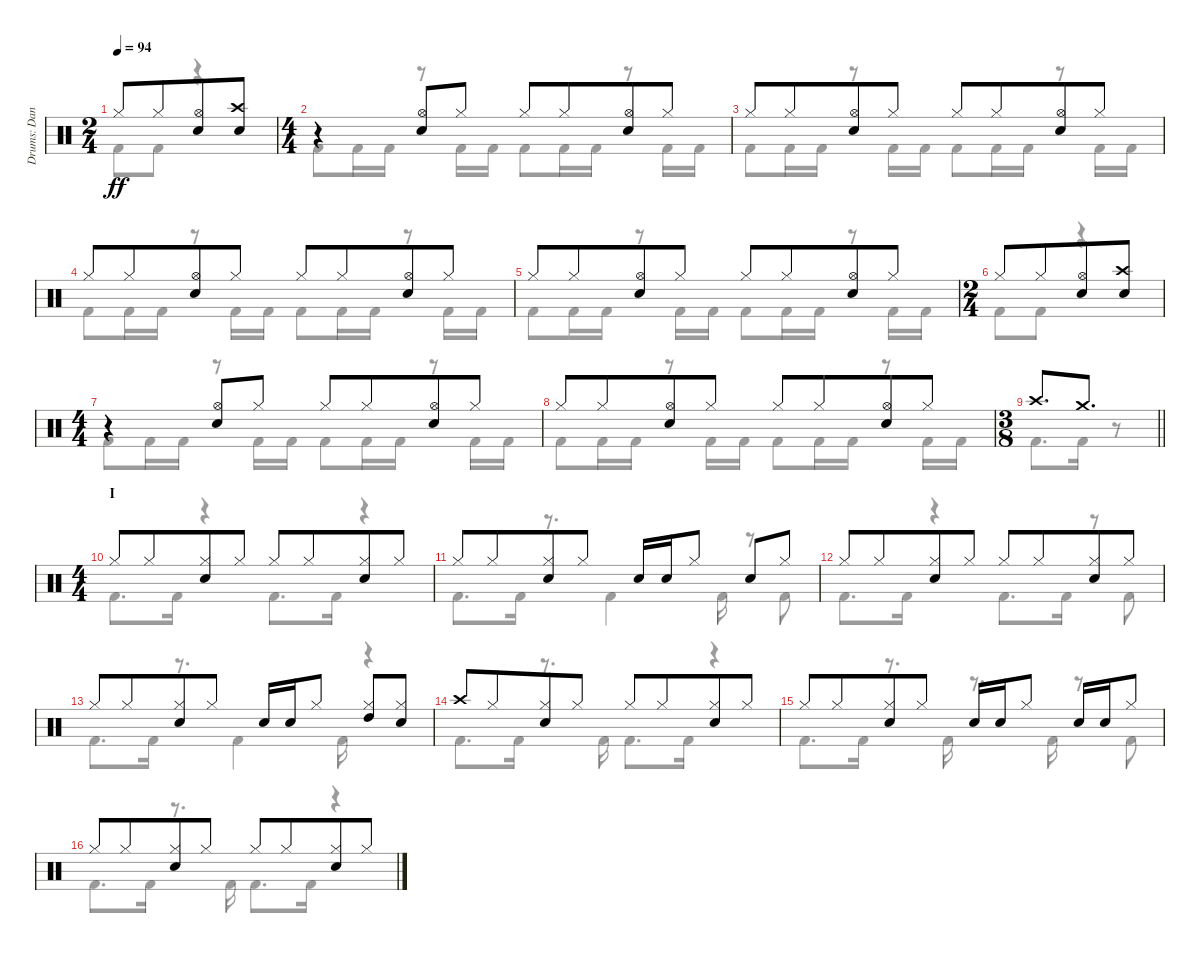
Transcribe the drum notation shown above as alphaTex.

\track ("Drums: Dana" "Drums: Dan") {instrument percussion}
\staff {score}
\articulation defaults
\voice
\ts (2 4)
\tempo 94
\clef neutral
\ks c "Hi-Hat (closed)".8{dy ff} "Hi-Hat (closed)".8{beam merge}
("Hi-Hat (open)" "Snare (hit) 2").8 ("Crash high (hit)" "Snare (hit) 2").8 |
\ts (4 4)
r.4{beam merge} ("Hi-Hat (open)" "Snare (hit) 2").8 "Hi-Hat (closed)".8 "Hi-Hat (closed)".8 "Hi-Hat (closed)".8{beam merge} ("Hi-Hat (open)" "Snare (hit) 2").8 "Hi-Hat (closed)".8 |
"Hi-Hat (closed)".8 "Hi-Hat (closed)".8{beam merge} ("Hi-Hat (open)" "Snare (hit) 2").8 "Hi-Hat (closed)".8 "Hi-Hat (closed)".8 "Hi-Hat (closed)".8{beam merge} ("Hi-Hat (open)" "Snare (hit) 2").8 "Hi-Hat (closed)".8 |
"Hi-Hat (closed)".8 "Hi-Hat (closed)".8{beam merge} ("Hi-Hat (open)" "Snare (hit) 2").8 "Hi-Hat (closed)".8 "Hi-Hat (closed)".8 "Hi-Hat (closed)".8{beam merge} ("Hi-Hat (open)" "Snare (hit) 2").8 "Hi-Hat (closed)".8 |
"Hi-Hat (closed)".8 "Hi-Hat (closed)".8{beam merge} ("Hi-Hat (open)" "Snare (hit) 2").8 "Hi-Hat (closed)".8 "Hi-Hat (closed)".8 "Hi-Hat (closed)".8{beam merge} ("Hi-Hat (open)" "Snare (hit) 2").8 "Hi-Hat (closed)".8 |
\ts (2 4)
"Hi-Hat (closed)".8 "Hi-Hat (closed)".8{beam merge} ("Hi-Hat (open)" "Snare (hit) 2").8 ("Crash high (hit)" "Snare (hit) 2").8 |
\ts (4 4)
r.4{beam merge} ("Hi-Hat (open)" "Snare (hit) 2").8 "Hi-Hat (closed)".8 "Hi-Hat (closed)".8 "Hi-Hat (closed)".8{beam merge} ("Hi-Hat (open)" "Snare (hit) 2").8 "Hi-Hat (closed)".8 |
"Hi-Hat (closed)".8 "Hi-Hat (closed)".8{beam merge} ("Hi-Hat (open)" "Snare (hit) 2").8 "Hi-Hat (closed)".8 "Hi-Hat (closed)".8 "Hi-Hat (closed)".8{beam merge} ("Hi-Hat (open)" "Snare (hit) 2").8 "Hi-Hat (closed)".8 |
\ts (3 8)
\barLineRight lightlight "Crash high (hit)".8{d} "Crash medium (hit)".8{d}
|
\ts (4 4)
\section ("" "I")
"Hi-Hat (closed)".8 "Hi-Hat (closed)".8{beam merge} ("Hi-Hat (closed)" "Snare (hit) 2").8 "Hi-Hat (closed)".8 "Hi-Hat (closed)".8 "Hi-Hat (closed)".8{beam merge} ("Hi-Hat (closed)" "Snare (hit) 2").8 "Hi-Hat (closed)".8 |
"Hi-Hat (closed)".8 "Hi-Hat (closed)".8{beam merge} ("Hi-Hat (closed)" "Snare (hit) 2").8 "Hi-Hat (closed)".8 "Snare (hit) 2".16 "Snare (hit) 2".16{beam merge} "Hi-Hat (closed)".8 "Snare (hit) 2".8 "Hi-Hat (closed)".8 |
"Hi-Hat (closed)".8 "Hi-Hat (closed)".8{beam merge} ("Hi-Hat (closed)" "Snare (hit) 2").8 "Hi-Hat (closed)".8 "Hi-Hat (closed)".8 "Hi-Hat (closed)".8{beam merge} ("Hi-Hat (closed)" "Snare (hit) 2").8 "Hi-Hat (closed)".8 |
"Hi-Hat (closed)".8 "Hi-Hat (closed)".8{beam merge} ("Hi-Hat (closed)" "Snare (hit) 2").8 "Hi-Hat (closed)".8 "Snare (hit) 2".16 "Snare (hit) 2".16{beam merge} "Hi-Hat (closed)".8 ("Hi-Hat (closed)" "High Tom (hit)").8 ("Hi-Hat (closed)" "Snare (hit) 2").8 |
"Crash high (hit)".8 "Hi-Hat (closed)".8{beam merge} ("Hi-Hat (closed)" "Snare (hit) 2").8 "Hi-Hat (closed)".8 "Hi-Hat (closed)".8 "Hi-Hat (closed)".8{beam merge} ("Hi-Hat (closed)" "Snare (hit) 2").8 "Hi-Hat (closed)".8 |
"Hi-Hat (closed)".8 "Hi-Hat (closed)".8{beam merge} ("Hi-Hat (closed)" "Snare (hit) 2").8 "Hi-Hat (closed)".8 "Snare (hit) 2".16 "Snare (hit) 2".16{beam merge} "Hi-Hat (closed)".8 "Snare (hit) 2".16 "Snare (hit) 2".16 "Hi-Hat (closed)".8 |
"Hi-Hat (closed)".8 "Hi-Hat (closed)".8{beam merge} ("Hi-Hat (closed)" "Snare (hit) 2").8 "Hi-Hat (closed)".8 "Hi-Hat (closed)".8 "Hi-Hat (closed)".8{beam merge} ("Hi-Hat (closed)" "Snare (hit) 2").8 "Hi-Hat (closed)".8
\voice
\clef neutral
\ottava regular
\simile none
\ks c "Kick (hit) 2".8{dy ff} "Kick (hit) 2".8
r.4 |
"Kick (hit) 2".8 "Kick (hit) 2".16 "Kick (hit) 2".16 r.8 "Kick (hit) 2".16 "Kick (hit) 2".16 "Kick (hit) 2".8 "Kick (hit) 2".16 "Kick (hit) 2".16 r.8 "Kick (hit) 2".16 "Kick (hit) 2".16 |
"Kick (hit) 2".8 "Kick (hit) 2".16 "Kick (hit) 2".16 r.8 "Kick (hit) 2".16 "Kick (hit) 2".16 "Kick (hit) 2".8 "Kick (hit) 2".16 "Kick (hit) 2".16 r.8 "Kick (hit) 2".16 "Kick (hit) 2".16 |
"Kick (hit) 2".8 "Kick (hit) 2".16 "Kick (hit) 2".16 r.8 "Kick (hit) 2".16 "Kick (hit) 2".16 "Kick (hit) 2".8 "Kick (hit) 2".16 "Kick (hit) 2".16 r.8 "Kick (hit) 2".16 "Kick (hit) 2".16 |
"Kick (hit) 2".8 "Kick (hit) 2".16 "Kick (hit) 2".16 r.8 "Kick (hit) 2".16 "Kick (hit) 2".16 "Kick (hit) 2".8 "Kick (hit) 2".16 "Kick (hit) 2".16 r.8 "Kick (hit) 2".16 "Kick (hit) 2".16 |
"Kick (hit) 2".8 "Kick (hit) 2".8 r.4 |
"Kick (hit) 2".8 "Kick (hit) 2".16 "Kick (hit) 2".16 r.8 "Kick (hit) 2".16 "Kick (hit) 2".16 "Kick (hit) 2".8 "Kick (hit) 2".16 "Kick (hit) 2".16 r.8 "Kick (hit) 2".16 "Kick (hit) 2".16 |
"Kick (hit) 2".8 "Kick (hit) 2".16 "Kick (hit) 2".16 r.8 "Kick (hit) 2".16 "Kick (hit) 2".16 "Kick (hit) 2".8 "Kick (hit) 2".16 "Kick (hit) 2".16 r.8 "Kick (hit) 2".16 "Kick (hit) 2".16 |
\barLineRight lightlight "Kick (hit) 2".8{d} "Kick (hit) 2".16
r.8 |
"Kick (hit) 2".8{d} "Kick (hit) 2".16 r.4 "Kick (hit) 2".8{d} "Kick (hit) 2".16 r.4 |
"Kick (hit) 2".8{d} "Kick (hit) 2".16 r.8{d} "Kick (hit) 2".4 "Kick (hit) 2".16 r.8 "Kick (hit) 2".8 |
"Kick (hit) 2".8{d} "Kick (hit) 2".16 r.4 "Kick (hit) 2".8{d} "Kick (hit) 2".16 r.8 "Kick (hit) 2".8 |
"Kick (hit) 2".8{d} "Kick (hit) 2".16 r.8{d} "Kick (hit) 2".4 "Kick (hit) 2".16 r.4 |
"Kick (hit) 2".8{d} "Kick (hit) 2".16 r.8{d} "Kick (hit) 2".16 "Kick (hit) 2".8{d} "Kick (hit) 2".16 r.4 |
"Kick (hit) 2".8{d} "Kick (hit) 2".16 r.8{d} "Kick (hit) 2".16 r.8{d} "Kick (hit) 2".16 r.8 "Kick (hit) 2".8 |
"Kick (hit) 2".8{d} "Kick (hit) 2".16 r.8{d} "Kick (hit) 2".16 "Kick (hit) 2".8{d} "Kick (hit) 2".16 r.4
